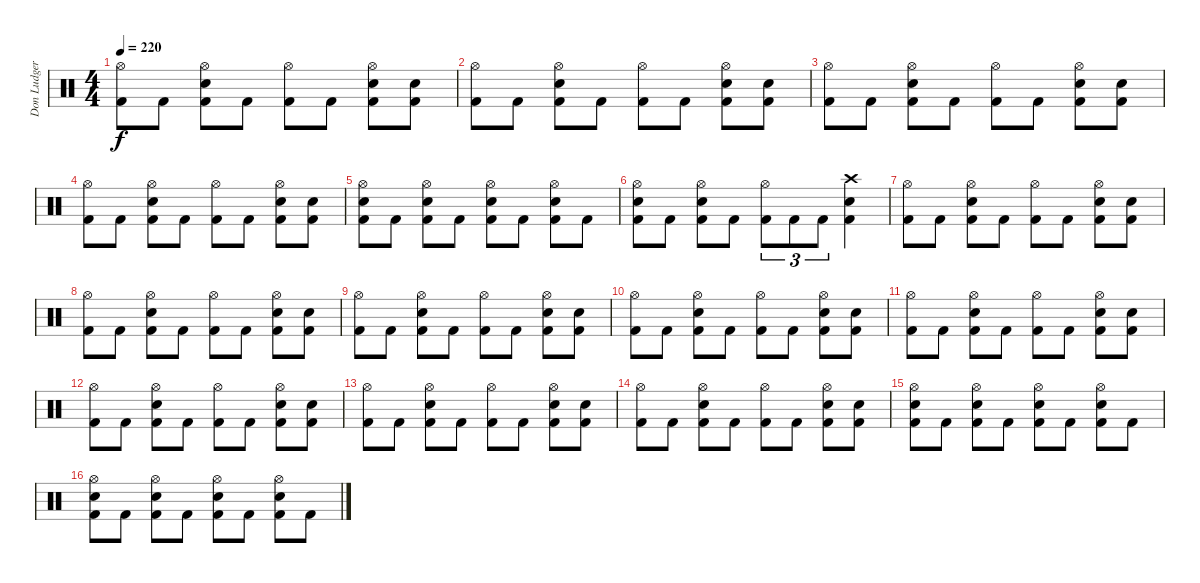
\track ("Don Ludger" "Don Ludger") {instrument percussion}
\staff {score}
\articulation defaults
\ts (4 4)
\tempo 220
\clef neutral
\ks c
("Hi-Hat (open)" "Kick (hit) 2").8{dy f} "Kick (hit) 2".8 ("Hi-Hat (open)" "Electric Snare (hit)" "Kick (hit) 2").8 "Kick (hit) 2".8 ("Hi-Hat (open)" "Kick (hit) 2").8 "Kick (hit) 2".8 ("Hi-Hat (open)" "Electric Snare (hit)" "Kick (hit) 2").8 ("Electric Snare (hit)" "Kick (hit) 2").8 |
("Hi-Hat (open)" "Kick (hit) 2").8 "Kick (hit) 2".8 ("Hi-Hat (open)" "Electric Snare (hit)" "Kick (hit) 2").8 "Kick (hit) 2".8 ("Hi-Hat (open)" "Kick (hit) 2").8 "Kick (hit) 2".8 ("Hi-Hat (open)" "Electric Snare (hit)" "Kick (hit) 2").8 ("Electric Snare (hit)" "Kick (hit) 2").8 |
("Hi-Hat (open)" "Kick (hit) 2").8 "Kick (hit) 2".8 ("Hi-Hat (open)" "Electric Snare (hit)" "Kick (hit) 2").8 "Kick (hit) 2".8 ("Hi-Hat (open)" "Kick (hit) 2").8 "Kick (hit) 2".8 ("Hi-Hat (open)" "Electric Snare (hit)" "Kick (hit) 2").8 ("Electric Snare (hit)" "Kick (hit) 2").8 |
("Hi-Hat (open)" "Kick (hit) 2").8 "Kick (hit) 2".8 ("Hi-Hat (open)" "Electric Snare (hit)" "Kick (hit) 2").8 "Kick (hit) 2".8 ("Hi-Hat (open)" "Kick (hit) 2").8 "Kick (hit) 2".8 ("Hi-Hat (open)" "Electric Snare (hit)" "Kick (hit) 2").8 ("Electric Snare (hit)" "Kick (hit) 2").8 |
("Hi-Hat (open)" "Electric Snare (hit)" "Kick (hit) 2").8 "Kick (hit) 2".8 ("Hi-Hat (open)" "Electric Snare (hit)" "Kick (hit) 2").8 "Kick (hit) 2".8 ("Hi-Hat (open)" "Electric Snare (hit)" "Kick (hit) 2").8 "Kick (hit) 2".8 ("Hi-Hat (open)" "Electric Snare (hit)" "Kick (hit) 2").8 "Kick (hit) 2".8 |
("Hi-Hat (open)" "Electric Snare (hit)" "Kick (hit) 2").8 "Kick (hit) 2".8 ("Hi-Hat (open)" "Electric Snare (hit)" "Kick (hit) 2").8 "Kick (hit) 2".8 ("Hi-Hat (open)" "Kick (hit) 2").8{tu (3 2)} "Kick (hit) 2".8{tu (3 2)} "Kick (hit) 2".8{tu (3 2)} ("Crash high (hit)" "Electric Snare (hit)" "Kick (hit) 2").4 |
("Hi-Hat (open)" "Kick (hit) 2").8 "Kick (hit) 2".8 ("Hi-Hat (open)" "Electric Snare (hit)" "Kick (hit) 2").8 "Kick (hit) 2".8 ("Hi-Hat (open)" "Kick (hit) 2").8 "Kick (hit) 2".8 ("Hi-Hat (open)" "Electric Snare (hit)" "Kick (hit) 2").8 ("Electric Snare (hit)" "Kick (hit) 2").8 |
("Hi-Hat (open)" "Kick (hit) 2").8 "Kick (hit) 2".8 ("Hi-Hat (open)" "Electric Snare (hit)" "Kick (hit) 2").8 "Kick (hit) 2".8 ("Hi-Hat (open)" "Kick (hit) 2").8 "Kick (hit) 2".8 ("Hi-Hat (open)" "Electric Snare (hit)" "Kick (hit) 2").8 ("Electric Snare (hit)" "Kick (hit) 2").8 |
("Hi-Hat (open)" "Kick (hit) 2").8 "Kick (hit) 2".8 ("Hi-Hat (open)" "Electric Snare (hit)" "Kick (hit) 2").8 "Kick (hit) 2".8 ("Hi-Hat (open)" "Kick (hit) 2").8 "Kick (hit) 2".8 ("Hi-Hat (open)" "Electric Snare (hit)" "Kick (hit) 2").8 ("Electric Snare (hit)" "Kick (hit) 2").8 |
("Hi-Hat (open)" "Kick (hit) 2").8 "Kick (hit) 2".8 ("Hi-Hat (open)" "Electric Snare (hit)" "Kick (hit) 2").8 "Kick (hit) 2".8 ("Hi-Hat (open)" "Kick (hit) 2").8 "Kick (hit) 2".8 ("Hi-Hat (open)" "Electric Snare (hit)" "Kick (hit) 2").8 ("Electric Snare (hit)" "Kick (hit) 2").8 |
("Hi-Hat (open)" "Kick (hit) 2").8 "Kick (hit) 2".8 ("Hi-Hat (open)" "Electric Snare (hit)" "Kick (hit) 2").8 "Kick (hit) 2".8 ("Hi-Hat (open)" "Kick (hit) 2").8 "Kick (hit) 2".8 ("Hi-Hat (open)" "Electric Snare (hit)" "Kick (hit) 2").8 ("Electric Snare (hit)" "Kick (hit) 2").8 |
("Hi-Hat (open)" "Kick (hit) 2").8 "Kick (hit) 2".8 ("Hi-Hat (open)" "Electric Snare (hit)" "Kick (hit) 2").8 "Kick (hit) 2".8 ("Hi-Hat (open)" "Kick (hit) 2").8 "Kick (hit) 2".8 ("Hi-Hat (open)" "Electric Snare (hit)" "Kick (hit) 2").8 ("Electric Snare (hit)" "Kick (hit) 2").8 |
("Hi-Hat (open)" "Kick (hit) 2").8 "Kick (hit) 2".8 ("Hi-Hat (open)" "Electric Snare (hit)" "Kick (hit) 2").8 "Kick (hit) 2".8 ("Hi-Hat (open)" "Kick (hit) 2").8 "Kick (hit) 2".8 ("Hi-Hat (open)" "Electric Snare (hit)" "Kick (hit) 2").8 ("Electric Snare (hit)" "Kick (hit) 2").8 |
("Hi-Hat (open)" "Kick (hit) 2").8 "Kick (hit) 2".8 ("Hi-Hat (open)" "Electric Snare (hit)" "Kick (hit) 2").8 "Kick (hit) 2".8 ("Hi-Hat (open)" "Kick (hit) 2").8 "Kick (hit) 2".8 ("Hi-Hat (open)" "Electric Snare (hit)" "Kick (hit) 2").8 ("Electric Snare (hit)" "Kick (hit) 2").8 |
("Hi-Hat (open)" "Electric Snare (hit)" "Kick (hit) 2").8 "Kick (hit) 2".8 ("Hi-Hat (open)" "Electric Snare (hit)" "Kick (hit) 2").8 "Kick (hit) 2".8 ("Hi-Hat (open)" "Electric Snare (hit)" "Kick (hit) 2").8 "Kick (hit) 2".8 ("Hi-Hat (open)" "Electric Snare (hit)" "Kick (hit) 2").8 "Kick (hit) 2".8 |
("Hi-Hat (open)" "Electric Snare (hit)" "Kick (hit) 2").8 "Kick (hit) 2".8 ("Hi-Hat (open)" "Electric Snare (hit)" "Kick (hit) 2").8 "Kick (hit) 2".8 ("Hi-Hat (open)" "Electric Snare (hit)" "Kick (hit) 2").8 "Kick (hit) 2".8 ("Hi-Hat (open)" "Electric Snare (hit)" "Kick (hit) 2").8 "Kick (hit) 2".8
